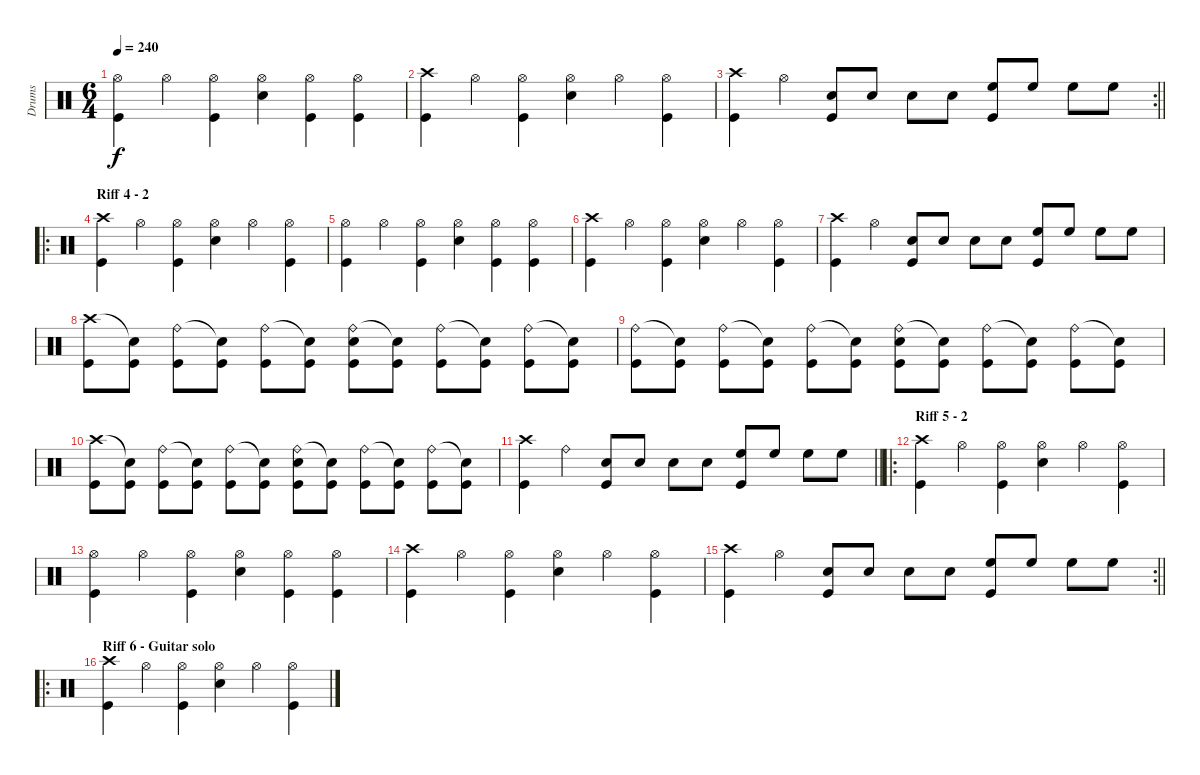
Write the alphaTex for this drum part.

\track ("Drums " "Drums ") {instrument percussion}
\staff {score}
\articulation defaults
\ts (6 4)
\tempo 240
\clef neutral
\ks c
("Hi-Hat (open)" "Kick (hit)").4{dy f} "Hi-Hat (open)".4 ("Hi-Hat (open)" "Kick (hit)").4 ("Hi-Hat (open)" "Electric Snare (hit)").4 ("Hi-Hat (open)" "Kick (hit)").4 ("Hi-Hat (open)" "Kick (hit)").4 |
("Crash high (hit)" "Kick (hit)").4 "Hi-Hat (open)".4 ("Hi-Hat (open)" "Kick (hit)").4 ("Hi-Hat (open)" "Electric Snare (hit)").4 "Hi-Hat (open)".4 ("Hi-Hat (open)" "Kick (hit)").4 |
\rc 2
\barLineRight lightlight
("Crash high (hit)" "Kick (hit)").4 "Hi-Hat (open)".4 ("Electric Snare (hit)" "Kick (hit)").8 "Electric Snare (hit)".8 "Electric Snare (hit)".8 "Electric Snare (hit)".8 ("High Floor Tom (hit)" "Kick (hit)").8 "High Floor Tom (hit)".8 "High Floor Tom (hit)".8 "High Floor Tom (hit)".8 |
\ro
\section ("" "Riff 4 - 2")
("Crash high (hit)" "Kick (hit)").4 "Hi-Hat (open)".4 ("Hi-Hat (open)" "Kick (hit)").4 ("Hi-Hat (open)" "Electric Snare (hit)").4 "Hi-Hat (open)".4 ("Hi-Hat (open)" "Kick (hit)").4 |
("Hi-Hat (open)" "Kick (hit)").4 "Hi-Hat (open)".4 ("Hi-Hat (open)" "Kick (hit)").4 ("Hi-Hat (open)" "Electric Snare (hit)").4 ("Hi-Hat (open)" "Kick (hit)").4 ("Hi-Hat (open)" "Kick (hit)").4 |
("Crash high (hit)" "Kick (hit)").4 "Hi-Hat (open)".4 ("Hi-Hat (open)" "Kick (hit)").4 ("Hi-Hat (open)" "Electric Snare (hit)").4 "Hi-Hat (open)".4 ("Hi-Hat (open)" "Kick (hit)").4 |
("Crash high (hit)" "Kick (hit)").4 "Hi-Hat (open)".4 ("Electric Snare (hit)" "Kick (hit)").8 "Electric Snare (hit)".8 "Electric Snare (hit)".8 "Electric Snare (hit)".8 ("High Floor Tom (hit)" "Kick (hit)").8 "High Floor Tom (hit)".8 "High Floor Tom (hit)".8 "High Floor Tom (hit)".8 |
("Crash high (hit)" "Kick (hit)").8 ("Snare (hit)"{t} "Kick (hit)").8 ("Ride (bell)" "Kick (hit)").8 ("Snare (hit)"{t} "Kick (hit)").8 ("Ride (bell)" "Kick (hit)").8 ("Snare (hit)"{t} "Kick (hit)").8 ("Ride (bell)" "Electric Snare (hit)" "Kick (hit)").8 ("Snare (hit)"{t} "Kick (hit)").8 ("Ride (bell)" "Kick (hit)").8 ("Snare (hit)"{t} "Kick (hit)").8 ("Ride (bell)" "Kick (hit)").8 ("Snare (hit)"{t} "Kick (hit)").8 |
("Ride (bell)" "Kick (hit)").8 ("Snare (hit)"{t} "Kick (hit)").8 ("Ride (bell)" "Kick (hit)").8 ("Snare (hit)"{t} "Kick (hit)").8 ("Ride (bell)" "Kick (hit)").8 ("Snare (hit)"{t} "Kick (hit)").8 ("Ride (bell)" "Electric Snare (hit)" "Kick (hit)").8 ("Snare (hit)"{t} "Kick (hit)").8 ("Ride (bell)" "Kick (hit)").8 ("Snare (hit)"{t} "Kick (hit)").8 ("Ride (bell)" "Kick (hit)").8 ("Snare (hit)"{t} "Kick (hit)").8 |
("Crash high (hit)" "Kick (hit)").8 ("Snare (hit)"{t} "Kick (hit)").8 ("Ride (bell)" "Kick (hit)").8 ("Snare (hit)"{t} "Kick (hit)").8 ("Ride (bell)" "Kick (hit)").8 ("Snare (hit)"{t} "Kick (hit)").8 ("Ride (bell)" "Electric Snare (hit)" "Kick (hit)").8 ("Snare (hit)"{t} "Kick (hit)").8 ("Ride (bell)" "Kick (hit)").8 ("Snare (hit)"{t} "Kick (hit)").8 ("Ride (bell)" "Kick (hit)").8 ("Snare (hit)"{t} "Kick (hit)").8 |
\barLineRight lightlight
("Crash high (hit)" "Kick (hit)").4 "Ride (bell)".4 ("Electric Snare (hit)" "Kick (hit)").8 "Electric Snare (hit)".8 "Electric Snare (hit)".8 "Electric Snare (hit)".8 ("High Floor Tom (hit)" "Kick (hit)").8 "High Floor Tom (hit)".8 "High Floor Tom (hit)".8 "High Floor Tom (hit)".8 |
\ro
\section ("" "Riff 5 - 2")
("Crash high (hit)" "Kick (hit)").4 "Hi-Hat (open)".4 ("Hi-Hat (open)" "Kick (hit)").4 ("Hi-Hat (open)" "Electric Snare (hit)").4 "Hi-Hat (open)".4 ("Hi-Hat (open)" "Kick (hit)").4 |
("Hi-Hat (open)" "Kick (hit)").4 "Hi-Hat (open)".4 ("Hi-Hat (open)" "Kick (hit)").4 ("Hi-Hat (open)" "Electric Snare (hit)").4 ("Hi-Hat (open)" "Kick (hit)").4 ("Hi-Hat (open)" "Kick (hit)").4 |
("Crash high (hit)" "Kick (hit)").4 "Hi-Hat (open)".4 ("Hi-Hat (open)" "Kick (hit)").4 ("Hi-Hat (open)" "Electric Snare (hit)").4 "Hi-Hat (open)".4 ("Hi-Hat (open)" "Kick (hit)").4 |
\rc 2
\barLineRight lightlight
("Crash high (hit)" "Kick (hit)").4 "Hi-Hat (open)".4 ("Electric Snare (hit)" "Kick (hit)").8 "Electric Snare (hit)".8 "Electric Snare (hit)".8 "Electric Snare (hit)".8 ("High Floor Tom (hit)" "Kick (hit)").8 "High Floor Tom (hit)".8 "High Floor Tom (hit)".8 "High Floor Tom (hit)".8 |
\ro
\section ("" "Riff 6 - Guitar solo ")
("Crash high (hit)" "Kick (hit)").4 "Hi-Hat (open)".4 ("Hi-Hat (open)" "Kick (hit)").4 ("Hi-Hat (open)" "Electric Snare (hit)").4 "Hi-Hat (open)".4 ("Hi-Hat (open)" "Kick (hit)").4
